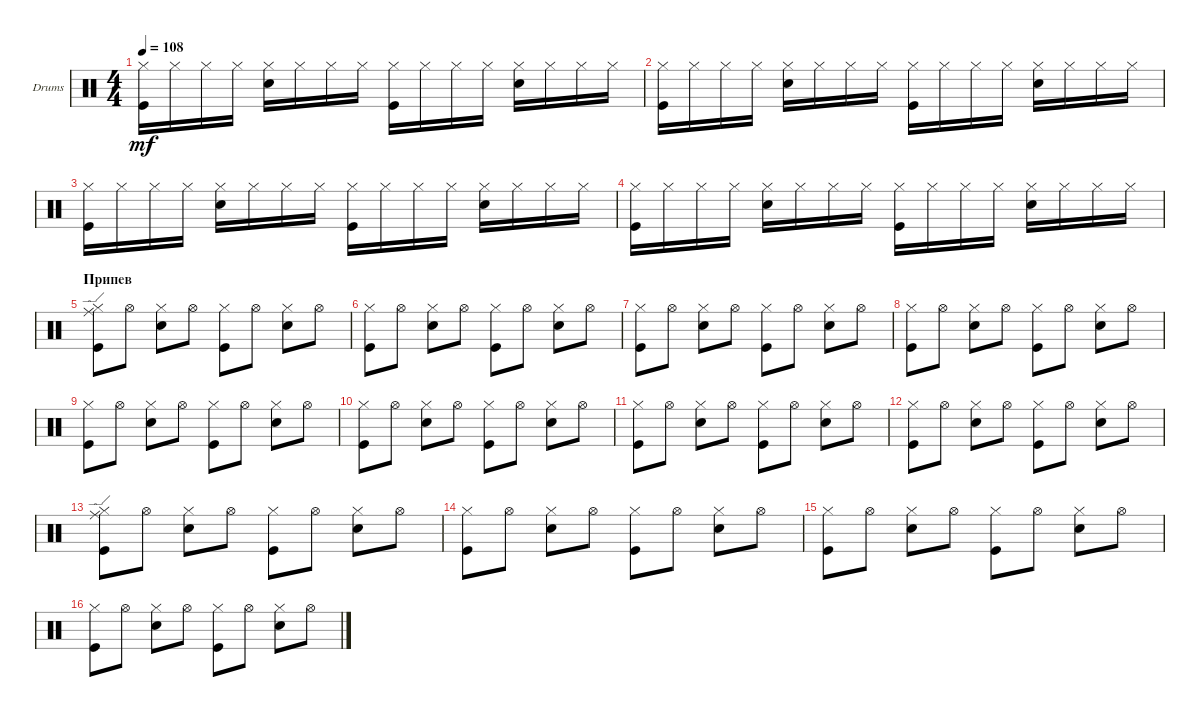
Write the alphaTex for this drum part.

\defaultSystemsLayout 4
\bracketExtendMode groupsimilarinstruments
\firstSystemTrackNameOrientation horizontal
\otherSystemsTrackNameOrientation horizontal
\track ("Drumkit" "Drums") {instrument percussion}
\staff {score}
\articulation defaults
\ts (4 4)
\tempo 108
\clef neutral
\scale
0.333333
\ks c
("Hi-Hat (closed)" "Kick (hit)").16{dy mf} "Hi-Hat (closed)".16 "Hi-Hat (closed)".16 "Hi-Hat (closed)".16 ("Hi-Hat (closed)" "Snare (hit) 2").16 "Hi-Hat (closed)".16 "Hi-Hat (closed)".16 "Hi-Hat (closed)".16 ("Hi-Hat (closed)" "Kick (hit)").16 "Hi-Hat (closed)".16 "Hi-Hat (closed)".16 "Hi-Hat (closed)".16 ("Hi-Hat (closed)" "Snare (hit) 2").16 "Hi-Hat (closed)".16 "Hi-Hat (closed)".16 "Hi-Hat (closed)".16 |
\scale
0.333333 ("Hi-Hat (closed)" "Kick (hit)").16 "Hi-Hat (closed)".16 "Hi-Hat (closed)".16 "Hi-Hat (closed)".16 ("Hi-Hat (closed)" "Snare (hit) 2").16 "Hi-Hat (closed)".16 "Hi-Hat (closed)".16 "Hi-Hat (closed)".16 ("Hi-Hat (closed)" "Kick (hit)").16 "Hi-Hat (closed)".16 "Hi-Hat (closed)".16 "Hi-Hat (closed)".16 ("Hi-Hat (closed)" "Snare (hit) 2").16 "Hi-Hat (closed)".16 "Hi-Hat (closed)".16 "Hi-Hat (closed)".16 |
\scale
0.333333 ("Hi-Hat (closed)" "Kick (hit)").16 "Hi-Hat (closed)".16 "Hi-Hat (closed)".16 "Hi-Hat (closed)".16 ("Hi-Hat (closed)" "Snare (hit) 2").16 "Hi-Hat (closed)".16 "Hi-Hat (closed)".16 "Hi-Hat (closed)".16 ("Hi-Hat (closed)" "Kick (hit)").16 "Hi-Hat (closed)".16 "Hi-Hat (closed)".16 "Hi-Hat (closed)".16 ("Hi-Hat (closed)" "Snare (hit) 2").16 "Hi-Hat (closed)".16 "Hi-Hat (closed)".16 "Hi-Hat (closed)".16 |
\scale
0.333333 ("Hi-Hat (closed)" "Kick (hit)").16 "Hi-Hat (closed)".16 "Hi-Hat (closed)".16 "Hi-Hat (closed)".16 ("Hi-Hat (closed)" "Snare (hit) 2").16 "Hi-Hat (closed)".16 "Hi-Hat (closed)".16 "Hi-Hat (closed)".16 ("Hi-Hat (closed)" "Kick (hit)").16 "Hi-Hat (closed)".16 "Hi-Hat (closed)".16 "Hi-Hat (closed)".16 ("Hi-Hat (closed)" "Snare (hit) 2").16 "Hi-Hat (closed)".16 "Hi-Hat (closed)".16 "Hi-Hat (closed)".16 |
\section ("" "Припев")
\scale
0.333333 ("Hi-Hat (closed)" "Kick (hit)" "Ride (edge)").8 "Hi-Hat (open)".8 ("Hi-Hat (closed)" "Snare (hit) 2").8 "Hi-Hat (open)".8 ("Hi-Hat (closed)" "Kick (hit)").8 "Hi-Hat (open)".8 ("Hi-Hat (closed)" "Snare (hit) 2").8 "Hi-Hat (open)".8 |
\scale
0.333333 ("Hi-Hat (closed)" "Kick (hit)").8 "Hi-Hat (open)".8 ("Hi-Hat (closed)" "Snare (hit) 2").8 "Hi-Hat (open)".8 ("Hi-Hat (closed)" "Kick (hit)").8 "Hi-Hat (open)".8 ("Hi-Hat (closed)" "Snare (hit) 2").8 "Hi-Hat (open)".8 |
\scale
0.333333 ("Hi-Hat (closed)" "Kick (hit)").8 "Hi-Hat (open)".8 ("Hi-Hat (closed)" "Snare (hit) 2").8 "Hi-Hat (open)".8 ("Hi-Hat (closed)" "Kick (hit)").8 "Hi-Hat (open)".8 ("Hi-Hat (closed)" "Snare (hit) 2").8 "Hi-Hat (open)".8 |
\scale
0.333333 ("Hi-Hat (closed)" "Kick (hit)").8 "Hi-Hat (open)".8 ("Hi-Hat (closed)" "Snare (hit) 2").8 "Hi-Hat (open)".8 ("Hi-Hat (closed)" "Kick (hit)").8 "Hi-Hat (open)".8 ("Hi-Hat (closed)" "Snare (hit) 2").8 "Hi-Hat (open)".8 |
\scale
0.333333 ("Hi-Hat (closed)" "Kick (hit)").8 "Hi-Hat (open)".8 ("Hi-Hat (closed)" "Snare (hit) 2").8 "Hi-Hat (open)".8 ("Hi-Hat (closed)" "Kick (hit)").8 "Hi-Hat (open)".8 ("Hi-Hat (closed)" "Snare (hit) 2").8 "Hi-Hat (open)".8 |
\scale
0.333333 ("Hi-Hat (closed)" "Kick (hit)").8 "Hi-Hat (open)".8 ("Hi-Hat (closed)" "Snare (hit) 2").8 "Hi-Hat (open)".8 ("Hi-Hat (closed)" "Kick (hit)").8 "Hi-Hat (open)".8 ("Hi-Hat (closed)" "Snare (hit) 2").8 "Hi-Hat (open)".8 |
\scale
0.333333 ("Hi-Hat (closed)" "Kick (hit)").8 "Hi-Hat (open)".8 ("Hi-Hat (closed)" "Snare (hit) 2").8 "Hi-Hat (open)".8 ("Hi-Hat (closed)" "Kick (hit)").8 "Hi-Hat (open)".8 ("Hi-Hat (closed)" "Snare (hit) 2").8 "Hi-Hat (open)".8 |
\scale
0.333333 ("Hi-Hat (closed)" "Kick (hit)").8 "Hi-Hat (open)".8 ("Hi-Hat (closed)" "Snare (hit) 2").8 "Hi-Hat (open)".8 ("Hi-Hat (closed)" "Kick (hit)").8 "Hi-Hat (open)".8 ("Hi-Hat (closed)" "Snare (hit) 2").8 "Hi-Hat (open)".8 |
\scale
0.333333 ("Hi-Hat (closed)" "Kick (hit)" "Ride (edge)").8 "Hi-Hat (open)".8 ("Hi-Hat (closed)" "Snare (hit) 2").8 "Hi-Hat (open)".8 ("Hi-Hat (closed)" "Kick (hit)").8 "Hi-Hat (open)".8 ("Hi-Hat (closed)" "Snare (hit) 2").8 "Hi-Hat (open)".8 |
\scale
0.333333 ("Hi-Hat (closed)" "Kick (hit)").8 "Hi-Hat (open)".8 ("Hi-Hat (closed)" "Snare (hit) 2").8 "Hi-Hat (open)".8 ("Hi-Hat (closed)" "Kick (hit)").8 "Hi-Hat (open)".8 ("Hi-Hat (closed)" "Snare (hit) 2").8 "Hi-Hat (open)".8 |
\scale
0.333333 ("Hi-Hat (closed)" "Kick (hit)").8 "Hi-Hat (open)".8 ("Hi-Hat (closed)" "Snare (hit) 2").8 "Hi-Hat (open)".8 ("Hi-Hat (closed)" "Kick (hit)").8 "Hi-Hat (open)".8 ("Hi-Hat (closed)" "Snare (hit) 2").8 "Hi-Hat (open)".8 |
\scale
0.333333 ("Hi-Hat (closed)" "Kick (hit)").8 "Hi-Hat (open)".8 ("Hi-Hat (closed)" "Snare (hit) 2").8 "Hi-Hat (open)".8 ("Hi-Hat (closed)" "Kick (hit)").8 "Hi-Hat (open)".8 ("Hi-Hat (closed)" "Snare (hit) 2").8 "Hi-Hat (open)".8
